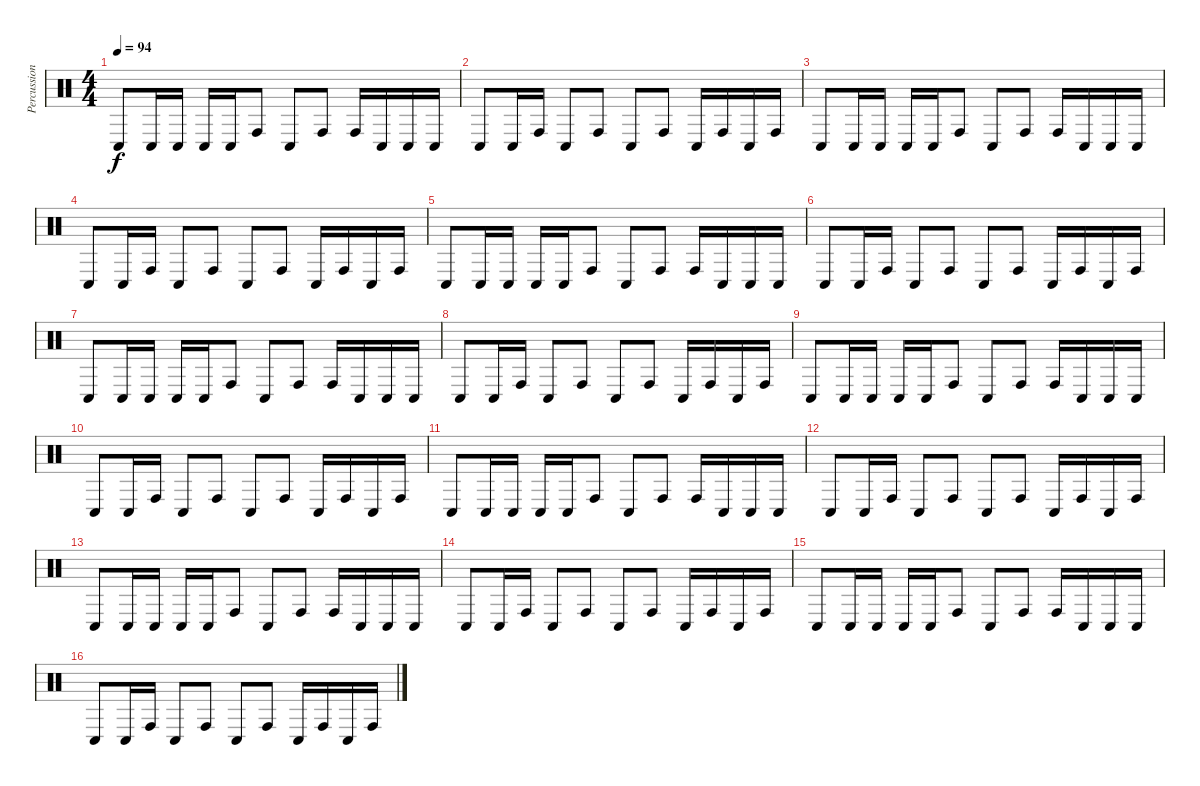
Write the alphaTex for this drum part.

\track ("Percussion" "Percussion") {instrument percussion}
\staff {score}
\articulation defaults
\ts (4 4)
\tempo 94
\clef neutral
\ks c "Conga low (hit)".8{dy f} "Conga low (hit)".16 "Conga low (hit)".16 "Conga low (hit)".16 "Conga low (hit)".16 "Conga high (hit)".8 "Conga low (hit)".8 "Conga high (hit)".8 "Conga high (hit)".16 "Conga low (hit)".16 "Conga low (hit)".16 "Conga low (hit)".16
|
"Conga low (hit)".8 "Conga low (hit)".16 "Conga high (hit)".16 "Conga low (hit)".8 "Conga high (hit)".8 "Conga low (hit)".8 "Conga high (hit)".8 "Conga low (hit)".16 "Conga high (hit)".16 "Conga low (hit)".16 "Conga high (hit)".16 |
"Conga low (hit)".8 "Conga low (hit)".16 "Conga low (hit)".16 "Conga low (hit)".16 "Conga low (hit)".16 "Conga high (hit)".8 "Conga low (hit)".8 "Conga high (hit)".8 "Conga high (hit)".16 "Conga low (hit)".16 "Conga low (hit)".16 "Conga low (hit)".16 |
"Conga low (hit)".8 "Conga low (hit)".16 "Conga high (hit)".16 "Conga low (hit)".8 "Conga high (hit)".8 "Conga low (hit)".8 "Conga high (hit)".8 "Conga low (hit)".16 "Conga high (hit)".16 "Conga low (hit)".16 "Conga high (hit)".16 |
"Conga low (hit)".8 "Conga low (hit)".16 "Conga low (hit)".16 "Conga low (hit)".16 "Conga low (hit)".16 "Conga high (hit)".8 "Conga low (hit)".8 "Conga high (hit)".8 "Conga high (hit)".16 "Conga low (hit)".16 "Conga low (hit)".16 "Conga low (hit)".16 |
"Conga low (hit)".8 "Conga low (hit)".16 "Conga high (hit)".16 "Conga low (hit)".8 "Conga high (hit)".8 "Conga low (hit)".8 "Conga high (hit)".8 "Conga low (hit)".16 "Conga high (hit)".16 "Conga low (hit)".16 "Conga high (hit)".16 |
"Conga low (hit)".8 "Conga low (hit)".16 "Conga low (hit)".16 "Conga low (hit)".16 "Conga low (hit)".16 "Conga high (hit)".8 "Conga low (hit)".8 "Conga high (hit)".8 "Conga high (hit)".16 "Conga low (hit)".16 "Conga low (hit)".16 "Conga low (hit)".16 |
"Conga low (hit)".8 "Conga low (hit)".16 "Conga high (hit)".16 "Conga low (hit)".8 "Conga high (hit)".8 "Conga low (hit)".8 "Conga high (hit)".8 "Conga low (hit)".16 "Conga high (hit)".16 "Conga low (hit)".16 "Conga high (hit)".16 |
"Conga low (hit)".8 "Conga low (hit)".16 "Conga low (hit)".16 "Conga low (hit)".16 "Conga low (hit)".16 "Conga high (hit)".8 "Conga low (hit)".8 "Conga high (hit)".8 "Conga high (hit)".16 "Conga low (hit)".16 "Conga low (hit)".16 "Conga low (hit)".16 |
"Conga low (hit)".8 "Conga low (hit)".16 "Conga high (hit)".16 "Conga low (hit)".8 "Conga high (hit)".8 "Conga low (hit)".8 "Conga high (hit)".8 "Conga low (hit)".16 "Conga high (hit)".16 "Conga low (hit)".16 "Conga high (hit)".16 |
"Conga low (hit)".8 "Conga low (hit)".16 "Conga low (hit)".16 "Conga low (hit)".16 "Conga low (hit)".16 "Conga high (hit)".8 "Conga low (hit)".8 "Conga high (hit)".8 "Conga high (hit)".16 "Conga low (hit)".16 "Conga low (hit)".16 "Conga low (hit)".16 |
"Conga low (hit)".8 "Conga low (hit)".16 "Conga high (hit)".16 "Conga low (hit)".8 "Conga high (hit)".8 "Conga low (hit)".8 "Conga high (hit)".8 "Conga low (hit)".16 "Conga high (hit)".16 "Conga low (hit)".16 "Conga high (hit)".16 |
"Conga low (hit)".8 "Conga low (hit)".16 "Conga low (hit)".16 "Conga low (hit)".16 "Conga low (hit)".16 "Conga high (hit)".8 "Conga low (hit)".8 "Conga high (hit)".8 "Conga high (hit)".16 "Conga low (hit)".16 "Conga low (hit)".16 "Conga low (hit)".16 |
"Conga low (hit)".8 "Conga low (hit)".16 "Conga high (hit)".16 "Conga low (hit)".8 "Conga high (hit)".8 "Conga low (hit)".8 "Conga high (hit)".8 "Conga low (hit)".16 "Conga high (hit)".16 "Conga low (hit)".16 "Conga high (hit)".16 |
"Conga low (hit)".8 "Conga low (hit)".16 "Conga low (hit)".16 "Conga low (hit)".16 "Conga low (hit)".16 "Conga high (hit)".8 "Conga low (hit)".8 "Conga high (hit)".8 "Conga high (hit)".16 "Conga low (hit)".16 "Conga low (hit)".16 "Conga low (hit)".16 |
"Conga low (hit)".8 "Conga low (hit)".16 "Conga high (hit)".16 "Conga low (hit)".8 "Conga high (hit)".8 "Conga low (hit)".8 "Conga high (hit)".8 "Conga low (hit)".16 "Conga high (hit)".16 "Conga low (hit)".16 "Conga high (hit)".16
